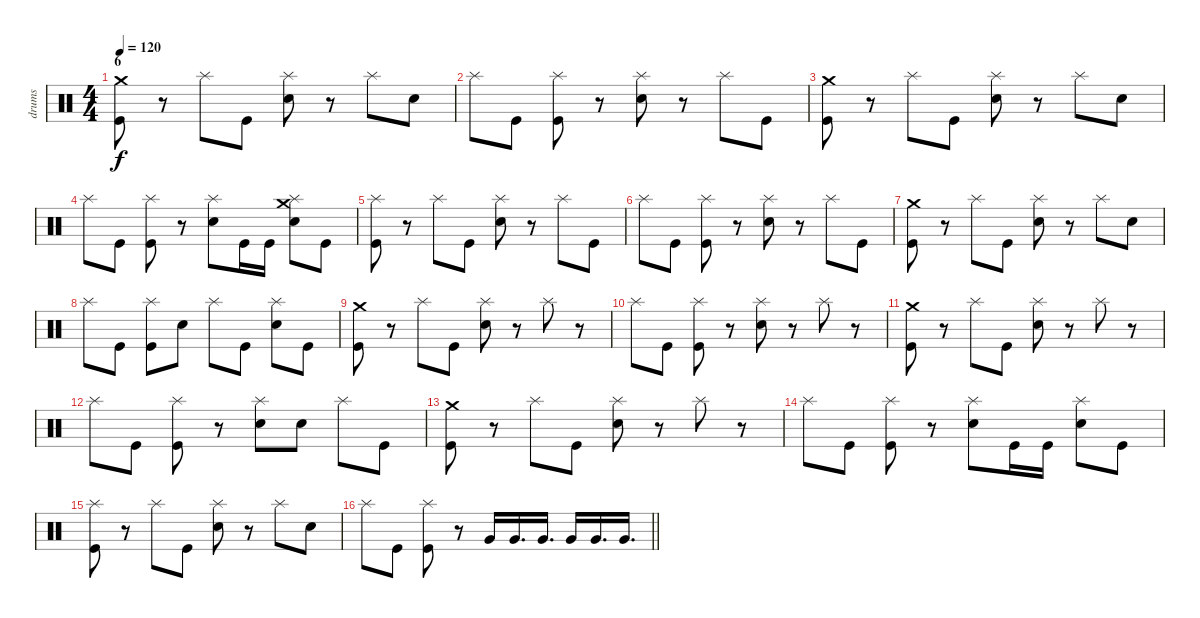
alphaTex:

\track ("drums" "drums") {instrument percussion}
\staff {score}
\articulation defaults
\ts (4 4)
\section ("" "6")
\tempo 120
\clef neutral
\ks c
("Crash medium (hit)" "Kick (hit)").8{dy f} r.8 "Splash (hit)".8 "Kick (hit)".8 ("Splash (hit)" "Electric Snare (hit)").8 r.8 "Splash (hit)".8 "Electric Snare (hit)".8 |
"Splash (hit)".8 "Kick (hit)".8 ("Splash (hit)" "Kick (hit)").8 r.8 ("Splash (hit)" "Electric Snare (hit)").8 r.8 "Splash (hit)".8 "Kick (hit)".8 |
("Crash medium (hit)" "Kick (hit)").8 r.8 "Splash (hit)".8 "Kick (hit)".8 ("Splash (hit)" "Electric Snare (hit)").8 r.8 "Splash (hit)".8 "Electric Snare (hit)".8 |
"Splash (hit)".8 "Kick (hit)".8 ("Splash (hit)" "Kick (hit)").8 r.8 ("Splash (hit)" "Electric Snare (hit)").8 "Kick (hit)".16 "Kick (hit)".16 ("Crash medium (hit)" "Splash (hit)" "Electric Snare (hit)").8 "Kick (hit)".8 |
("Splash (hit)" "Kick (hit)").8 r.8 "Splash (hit)".8 "Kick (hit)".8 ("Splash (hit)" "Electric Snare (hit)").8 r.8 "Splash (hit)".8 "Kick (hit)".8 |
"Splash (hit)".8 "Kick (hit)".8 ("Splash (hit)" "Kick (hit)").8 r.8 ("Splash (hit)" "Electric Snare (hit)").8 r.8 "Splash (hit)".8 "Kick (hit)".8 |
("Crash medium (hit)" "Kick (hit)").8 r.8 "Splash (hit)".8 "Kick (hit)".8 ("Splash (hit)" "Electric Snare (hit)").8 r.8 "Splash (hit)".8 "Electric Snare (hit)".8 |
"Splash (hit)".8 "Kick (hit)".8 ("Splash (hit)" "Kick (hit)").8 "Electric Snare (hit)".8 "Splash (hit)".8 "Kick (hit)".8 ("Splash (hit)" "Electric Snare (hit)").8 "Kick (hit)".8 |
("Crash medium (hit)" "Kick (hit)").8 r.8 "Splash (hit)".8 "Kick (hit)".8 ("Splash (hit)" "Electric Snare (hit)").8 r.8 "Splash (hit)".8 r.8 |
"Splash (hit)".8 "Kick (hit)".8 ("Splash (hit)" "Kick (hit)").8 r.8 ("Splash (hit)" "Electric Snare (hit)").8 r.8 "Splash (hit)".8 r.8 |
("Crash medium (hit)" "Kick (hit)").8 r.8 "Splash (hit)".8 "Kick (hit)".8 ("Splash (hit)" "Electric Snare (hit)").8 r.8 "Splash (hit)".8 r.8 |
"Splash (hit)".8 "Kick (hit)".8 ("Splash (hit)" "Kick (hit)").8 r.8 ("Splash (hit)" "Electric Snare (hit)").8 "Electric Snare (hit)".8 "Splash (hit)".8 "Kick (hit)".8 |
("Crash medium (hit)" "Kick (hit)").8 r.8 "Splash (hit)".8 "Kick (hit)".8 ("Splash (hit)" "Electric Snare (hit)").8 r.8 "Splash (hit)".8 r.8 |
"Splash (hit)".8 "Kick (hit)".8 ("Splash (hit)" "Kick (hit)").8 r.8 ("Splash (hit)" "Electric Snare (hit)").8 "Kick (hit)".16 "Kick (hit)".16 ("Splash (hit)" "Electric Snare (hit)").8 "Kick (hit)".8 |
("Splash (hit)" "Kick (hit)").8 r.8 "Splash (hit)".8 "Kick (hit)".8 ("Splash (hit)" "Electric Snare (hit)").8 r.8 "Splash (hit)".8 "Electric Snare (hit)".8 |
\barLineRight lightlight "Splash (hit)".8 "Kick (hit)".8
("Splash (hit)" "Kick (hit)").8 r.8 "Very Low Tom (hit)".16 "Very Low Tom (hit)".16{d} "Very Low Tom (hit)".16{d} "Very Low Tom (hit)".16 "Very Low Tom (hit)".16{d} "Very Low Tom (hit)".16{d}
